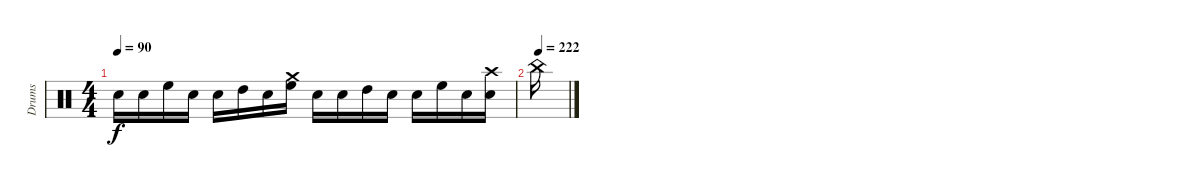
\track ("Drums" "Drums") {instrument percussion}
\staff {score}
\articulation defaults
\ts (4 4)
\tempo 90
\clef neutral
\ks c "Snare (hit) 2".16{dy f} "Snare (hit) 2".16 "High Floor Tom (hit)".16 "Snare (hit) 2".16 "Snare (hit) 2".16 "High Tom (hit)".16 "Snare (hit) 2".16
("Crash medium (hit)" "High Floor Tom (hit)").16 "Snare (hit) 2".16 "Snare (hit) 2".16 "High Tom (hit)".16 "Snare (hit) 2".16 "Snare (hit) 2".16 "High Floor Tom (hit)".16 "Snare (hit) 2".16 ("Crash high (hit)" "Snare (hit) 2").16 |
\tempo (222)
"China (hit)".16
